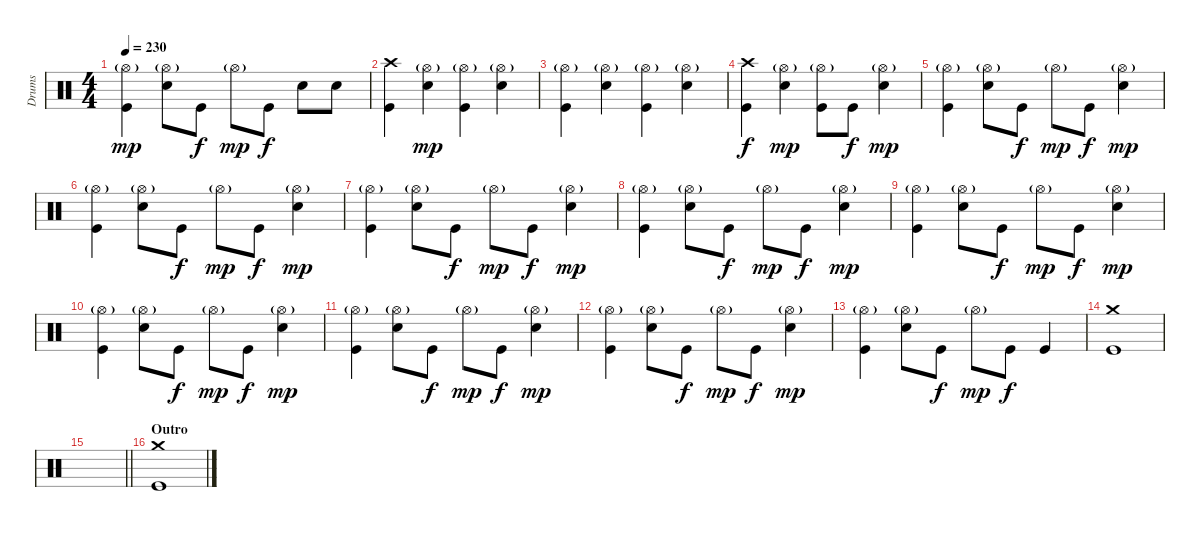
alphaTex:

\track ("Drums" "Drums") {instrument percussion}
\staff {score}
\articulation defaults
\ts (4 4)
\tempo 230
\clef neutral
\ks c
("Hi-Hat (open)"{g} "Kick (hit)").4{dy mp} ("Hi-Hat (open)"{g} "Snare (hit) 2").8 "Kick (hit)".8{dy f} "Hi-Hat (open)"{g}.8{dy mp} "Kick (hit)".8{dy f} "Snare (hit) 2".8 "Snare (hit) 2".8 |
("Crash high (hit)" "Kick (hit)").4 ("Hi-Hat (open)"{g} "Snare (hit) 2").4{dy mp} ("Hi-Hat (open)"{g} "Kick (hit)").4 ("Hi-Hat (open)"{g} "Snare (hit) 2").4 |
("Hi-Hat (open)"{g} "Kick (hit)").4 ("Hi-Hat (open)"{g} "Snare (hit) 2").4 ("Hi-Hat (open)"{g} "Kick (hit)").4 ("Hi-Hat (open)"{g} "Snare (hit) 2").4 |
("Crash high (hit)" "Kick (hit)").4{dy f} ("Hi-Hat (open)"{g} "Snare (hit) 2").4{dy mp} ("Hi-Hat (open)"{g} "Kick (hit)").8 "Kick (hit)".8{dy f} ("Hi-Hat (open)"{g} "Snare (hit) 2").4{dy mp} |
("Hi-Hat (open)"{g} "Kick (hit)").4 ("Hi-Hat (open)"{g} "Snare (hit) 2").8 "Kick (hit)".8{dy f} "Hi-Hat (open)"{g}.8{dy mp} "Kick (hit)".8{dy f} ("Hi-Hat (open)"{g} "Snare (hit) 2").4{dy mp} |
("Hi-Hat (open)"{g} "Kick (hit)").4 ("Hi-Hat (open)"{g} "Snare (hit) 2").8 "Kick (hit)".8{dy f} "Hi-Hat (open)"{g}.8{dy mp} "Kick (hit)".8{dy f} ("Hi-Hat (open)"{g} "Snare (hit) 2").4{dy mp} |
("Hi-Hat (open)"{g} "Kick (hit)").4 ("Hi-Hat (open)"{g} "Snare (hit) 2").8 "Kick (hit)".8{dy f} "Hi-Hat (open)"{g}.8{dy mp} "Kick (hit)".8{dy f} ("Hi-Hat (open)"{g} "Snare (hit) 2").4{dy mp} |
("Hi-Hat (open)"{g} "Kick (hit)").4 ("Hi-Hat (open)"{g} "Snare (hit) 2").8 "Kick (hit)".8{dy f} "Hi-Hat (open)"{g}.8{dy mp} "Kick (hit)".8{dy f} ("Hi-Hat (open)"{g} "Snare (hit) 2").4{dy mp} |
("Hi-Hat (open)"{g} "Kick (hit)").4 ("Hi-Hat (open)"{g} "Snare (hit) 2").8 "Kick (hit)".8{dy f} "Hi-Hat (open)"{g}.8{dy mp} "Kick (hit)".8{dy f} ("Hi-Hat (open)"{g} "Snare (hit) 2").4{dy mp} |
("Hi-Hat (open)"{g} "Kick (hit)").4 ("Hi-Hat (open)"{g} "Snare (hit) 2").8 "Kick (hit)".8{dy f} "Hi-Hat (open)"{g}.8{dy mp} "Kick (hit)".8{dy f} ("Hi-Hat (open)"{g} "Snare (hit) 2").4{dy mp} |
("Hi-Hat (open)"{g} "Kick (hit)").4 ("Hi-Hat (open)"{g} "Snare (hit) 2").8 "Kick (hit)".8{dy f} "Hi-Hat (open)"{g}.8{dy mp} "Kick (hit)".8{dy f} ("Hi-Hat (open)"{g} "Snare (hit) 2").4{dy mp} |
("Hi-Hat (open)"{g} "Kick (hit)").4 ("Hi-Hat (open)"{g} "Snare (hit) 2").8 "Kick (hit)".8{dy f} "Hi-Hat (open)"{g}.8{dy mp} "Kick (hit)".8{dy f} ("Hi-Hat (open)"{g} "Snare (hit) 2").4{dy mp} |
("Hi-Hat (open)"{g} "Kick (hit)").4 ("Hi-Hat (open)"{g} "Snare (hit) 2").8 "Kick (hit)".8{dy f} "Hi-Hat (open)"{g}.8{dy mp} "Kick (hit)".8{dy f} "Kick (hit)".4 |
("Crash medium (hit)" "Kick (hit)").1 |
\barLineRight lightlight
|
\section ("" "Outro")
("Crash medium (hit)" "Kick (hit)").1
